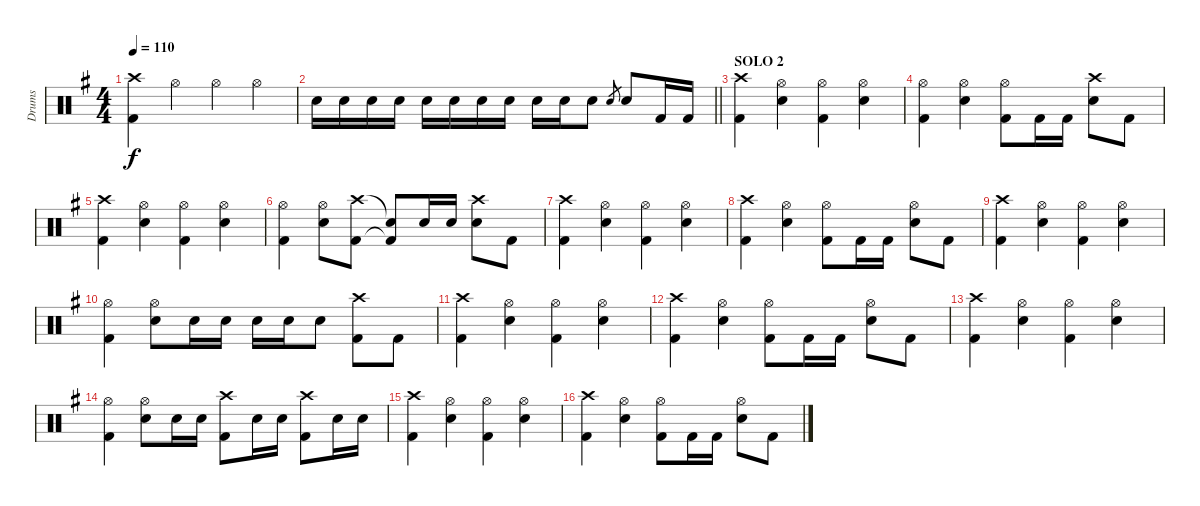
\track ("Drums" "Drums") {instrument percussion}
\staff {score}
\articulation defaults
\ts (4 4)
\tempo 110
\clef neutral
\ks eminor
("Crash high (hit)" "Kick (hit) 2").4{dy f} "Hi-Hat (open)".4 "Hi-Hat (open)".4 "Hi-Hat (open)".4 |
\barLineRight lightlight "Electric Snare (hit)".16 "Electric Snare (hit)".16 "Electric Snare (hit)".16 "Electric Snare (hit)".16 "Electric Snare (hit)".16 "Electric Snare (hit)".16 "Electric Snare (hit)".16 "Electric Snare (hit)".16 "Electric Snare (hit)".16 "Electric Snare (hit)".16 "Electric Snare (hit)".8 "Electric Snare (hit)".8{gr} "Electric Snare (hit)".8 "Kick (hit) 2".16 "Kick (hit) 2".16
|
\section ("" "SOLO 2")
("Crash high (hit)" "Kick (hit) 2").4 ("Hi-Hat (open)" "Electric Snare (hit)").4 ("Hi-Hat (open)" "Kick (hit) 2").4 ("Hi-Hat (open)" "Electric Snare (hit)").4 |
("Hi-Hat (open)" "Kick (hit) 2").4 ("Hi-Hat (open)" "Electric Snare (hit)").4 ("Hi-Hat (open)" "Kick (hit) 2").8 "Kick (hit) 2".16 "Kick (hit) 2".16 ("Crash high (hit)" "Electric Snare (hit)").8 "Kick (hit) 2".8 |
("Crash high (hit)" "Kick (hit) 2").4 ("Hi-Hat (open)" "Electric Snare (hit)").4 ("Hi-Hat (open)" "Kick (hit) 2").4 ("Hi-Hat (open)" "Electric Snare (hit)").4 |
("Hi-Hat (open)" "Kick (hit) 2").4 ("Hi-Hat (open)" "Electric Snare (hit)").8 ("Crash high (hit)" "Kick (hit) 2").8 ("Snare (hit)"{t} "Kick (hit) 2"{t}).8 "Electric Snare (hit)".16 "Electric Snare (hit)".16 ("Crash high (hit)" "Electric Snare (hit)").8 "Kick (hit) 2".8 |
("Crash high (hit)" "Kick (hit) 2").4 ("Hi-Hat (open)" "Electric Snare (hit)").4 ("Hi-Hat (open)" "Kick (hit) 2").4 ("Hi-Hat (open)" "Electric Snare (hit)").4 |
("Crash high (hit)" "Kick (hit) 2").4 ("Hi-Hat (open)" "Electric Snare (hit)").4 ("Hi-Hat (open)" "Kick (hit) 2").8 "Kick (hit) 2".16 "Kick (hit) 2".16 ("Hi-Hat (open)" "Electric Snare (hit)").8 "Kick (hit) 2".8 |
("Crash high (hit)" "Kick (hit) 2").4 ("Hi-Hat (open)" "Electric Snare (hit)").4 ("Hi-Hat (open)" "Kick (hit) 2").4 ("Hi-Hat (open)" "Electric Snare (hit)").4 |
("Hi-Hat (open)" "Kick (hit) 2").4 ("Hi-Hat (open)" "Electric Snare (hit)").8 "Electric Snare (hit)".16 "Electric Snare (hit)".16 "Electric Snare (hit)".16 "Electric Snare (hit)".16 "Electric Snare (hit)".8 ("Crash high (hit)" "Kick (hit) 2").8 "Kick (hit) 2".8 |
("Crash high (hit)" "Kick (hit) 2").4 ("Hi-Hat (open)" "Electric Snare (hit)").4 ("Hi-Hat (open)" "Kick (hit) 2").4 ("Hi-Hat (open)" "Electric Snare (hit)").4 |
("Crash high (hit)" "Kick (hit) 2").4 ("Hi-Hat (open)" "Electric Snare (hit)").4 ("Hi-Hat (open)" "Kick (hit) 2").8 "Kick (hit) 2".16 "Kick (hit) 2".16 ("Hi-Hat (open)" "Electric Snare (hit)").8 "Kick (hit) 2".8 |
("Crash high (hit)" "Kick (hit) 2").4 ("Hi-Hat (open)" "Electric Snare (hit)").4 ("Hi-Hat (open)" "Kick (hit) 2").4 ("Hi-Hat (open)" "Electric Snare (hit)").4 |
("Hi-Hat (open)" "Kick (hit) 2").4 ("Hi-Hat (open)" "Electric Snare (hit)").8 "Electric Snare (hit)".16 "Electric Snare (hit)".16 ("Crash high (hit)" "Kick (hit) 2").8 "Electric Snare (hit)".16 "Electric Snare (hit)".16 ("Crash high (hit)" "Kick (hit) 2").8 "Electric Snare (hit)".16 "Electric Snare (hit)".16 |
("Crash high (hit)" "Kick (hit) 2").4 ("Hi-Hat (open)" "Electric Snare (hit)").4 ("Hi-Hat (open)" "Kick (hit) 2").4 ("Hi-Hat (open)" "Electric Snare (hit)").4 |
("Crash high (hit)" "Kick (hit) 2").4 ("Hi-Hat (open)" "Electric Snare (hit)").4 ("Hi-Hat (open)" "Kick (hit) 2").8 "Kick (hit) 2".16 "Kick (hit) 2".16 ("Hi-Hat (open)" "Electric Snare (hit)").8 "Kick (hit) 2".8
